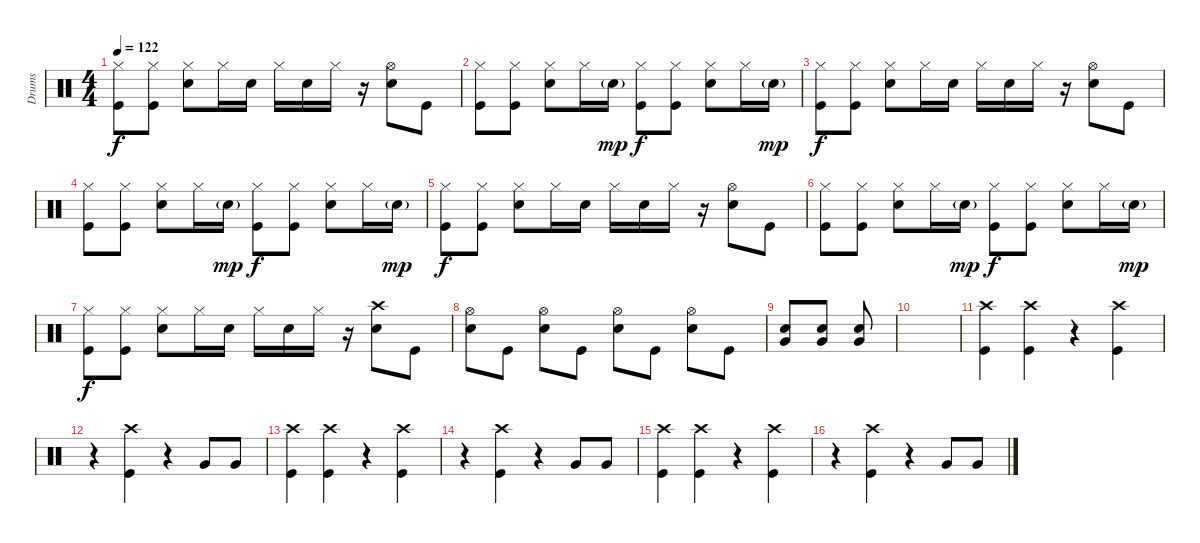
\track ("Drums" "Drums") {instrument percussion}
\staff {score}
\articulation defaults
\ts (4 4)
\tempo 122
\clef neutral
\ks c
("Hi-Hat (closed)" "Kick (hit)").8{dy f} ("Hi-Hat (closed)" "Kick (hit)").8 ("Hi-Hat (closed)" "Snare (hit) 2").8 "Hi-Hat (closed)".16 "Snare (hit) 2".16 "Hi-Hat (closed)".16 "Snare (hit) 2".16 "Hi-Hat (closed)".16 r.16 ("Hi-Hat (open)" "Snare (hit) 2").8 "Kick (hit)".8 |
("Hi-Hat (closed)" "Kick (hit)").8 ("Hi-Hat (closed)" "Kick (hit)").8 ("Hi-Hat (closed)" "Snare (hit) 2").8 "Hi-Hat (closed)".16 "Snare (hit) 2"{g}.16{dy mp} ("Hi-Hat (closed)" "Kick (hit)").8{dy f} ("Hi-Hat (closed)" "Kick (hit)").8 ("Hi-Hat (closed)" "Snare (hit) 2").8 "Hi-Hat (closed)".16 "Snare (hit) 2"{g}.16{dy mp} |
("Hi-Hat (closed)" "Kick (hit)").8{dy f} ("Hi-Hat (closed)" "Kick (hit)").8 ("Hi-Hat (closed)" "Snare (hit) 2").8 "Hi-Hat (closed)".16 "Snare (hit) 2".16 "Hi-Hat (closed)".16 "Snare (hit) 2".16 "Hi-Hat (closed)".16 r.16 ("Hi-Hat (open)" "Snare (hit) 2").8 "Kick (hit)".8 |
("Hi-Hat (closed)" "Kick (hit)").8 ("Hi-Hat (closed)" "Kick (hit)").8 ("Hi-Hat (closed)" "Snare (hit) 2").8 "Hi-Hat (closed)".16 "Snare (hit) 2"{g}.16{dy mp} ("Hi-Hat (closed)" "Kick (hit)").8{dy f} ("Hi-Hat (closed)" "Kick (hit)").8 ("Hi-Hat (closed)" "Snare (hit) 2").8 "Hi-Hat (closed)".16 "Snare (hit) 2"{g}.16{dy mp} |
("Hi-Hat (closed)" "Kick (hit)").8{dy f} ("Hi-Hat (closed)" "Kick (hit)").8 ("Hi-Hat (closed)" "Snare (hit) 2").8 "Hi-Hat (closed)".16 "Snare (hit) 2".16 "Hi-Hat (closed)".16 "Snare (hit) 2".16 "Hi-Hat (closed)".16 r.16 ("Hi-Hat (open)" "Snare (hit) 2").8 "Kick (hit)".8 |
("Hi-Hat (closed)" "Kick (hit)").8 ("Hi-Hat (closed)" "Kick (hit)").8 ("Hi-Hat (closed)" "Snare (hit) 2").8 "Hi-Hat (closed)".16 "Snare (hit) 2"{g}.16{dy mp} ("Hi-Hat (closed)" "Kick (hit)").8{dy f} ("Hi-Hat (closed)" "Kick (hit)").8 ("Hi-Hat (closed)" "Snare (hit) 2").8 "Hi-Hat (closed)".16 "Snare (hit) 2"{g}.16{dy mp} |
("Hi-Hat (closed)" "Kick (hit)").8{dy f} ("Hi-Hat (closed)" "Kick (hit)").8 ("Hi-Hat (closed)" "Snare (hit) 2").8 "Hi-Hat (closed)".16 "Snare (hit) 2".16 "Hi-Hat (closed)".16 "Snare (hit) 2".16 "Hi-Hat (closed)".16 r.16 ("Crash high (hit)" "Snare (hit) 2").8 "Kick (hit)".8 |
("Hi-Hat (open)" "Snare (hit) 2").8 "Kick (hit)".8 ("Hi-Hat (open)" "Snare (hit) 2").8 "Kick (hit)".8 ("Hi-Hat (open)" "Snare (hit) 2").8 "Kick (hit)".8 ("Hi-Hat (open)" "Snare (hit) 2").8 "Kick (hit)".8 |
("Snare (hit) 2" "Very Low Tom (hit)").8 ("Snare (hit) 2" "Very Low Tom (hit)").8 ("Snare (hit) 2" "Very Low Tom (hit)").8 |
|
("Crash high (hit)" "Kick (hit)").4 ("Crash high (hit)" "Kick (hit)").4 r.4 ("Crash high (hit)" "Kick (hit)").4 |
r.4 ("Crash high (hit)" "Kick (hit)").4 r.4 "Very Low Tom (hit)".8 "Very Low Tom (hit)".8 |
("Crash high (hit)" "Kick (hit)").4 ("Crash high (hit)" "Kick (hit)").4 r.4 ("Crash high (hit)" "Kick (hit)").4 |
r.4 ("Crash high (hit)" "Kick (hit)").4 r.4 "Very Low Tom (hit)".8 "Very Low Tom (hit)".8 |
("Crash high (hit)" "Kick (hit)").4 ("Crash high (hit)" "Kick (hit)").4 r.4 ("Crash high (hit)" "Kick (hit)").4 |
r.4 ("Crash high (hit)" "Kick (hit)").4 r.4 "Very Low Tom (hit)".8 "Very Low Tom (hit)".8
